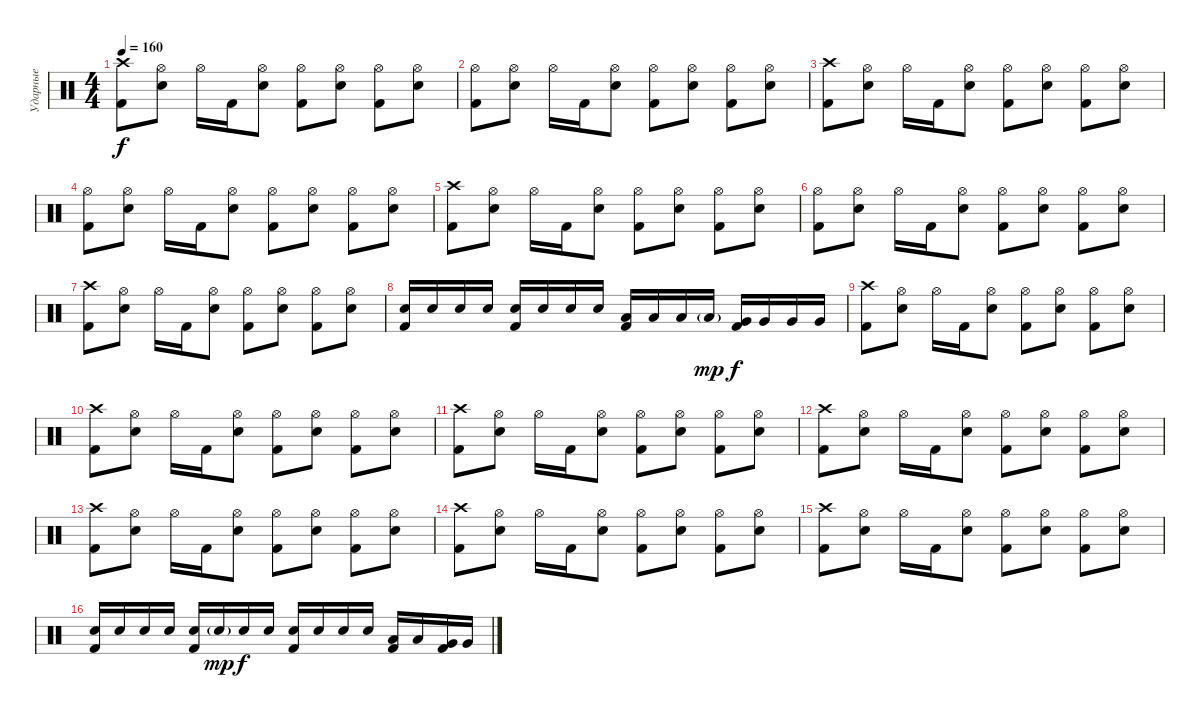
\track ("Ударные" "Ударные") {instrument percussion}
\staff {score}
\articulation defaults
\ts (4 4)
\tempo 160
\clef neutral
\ks c
("Kick (hit) 2" "Crash high (hit)").8{dy f} ("Electric Snare (hit)" "Hi-Hat (open)").8 "Hi-Hat (open)".16 "Kick (hit) 2".16 ("Electric Snare (hit)" "Hi-Hat (open)").8 ("Kick (hit) 2" "Hi-Hat (open)").8 ("Electric Snare (hit)" "Hi-Hat (open)").8 ("Kick (hit) 2" "Hi-Hat (open)").8 ("Electric Snare (hit)" "Hi-Hat (open)").8 |
("Kick (hit) 2" "Hi-Hat (open)").8 ("Electric Snare (hit)" "Hi-Hat (open)").8 "Hi-Hat (open)".16 "Kick (hit) 2".16 ("Electric Snare (hit)" "Hi-Hat (open)").8 ("Kick (hit) 2" "Hi-Hat (open)").8 ("Electric Snare (hit)" "Hi-Hat (open)").8 ("Kick (hit) 2" "Hi-Hat (open)").8 ("Electric Snare (hit)" "Hi-Hat (open)").8 |
("Kick (hit) 2" "Crash high (hit)").8 ("Electric Snare (hit)" "Hi-Hat (open)").8 "Hi-Hat (open)".16 "Kick (hit) 2".16 ("Electric Snare (hit)" "Hi-Hat (open)").8 ("Kick (hit) 2" "Hi-Hat (open)").8 ("Electric Snare (hit)" "Hi-Hat (open)").8 ("Kick (hit) 2" "Hi-Hat (open)").8 ("Electric Snare (hit)" "Hi-Hat (open)").8 |
("Kick (hit) 2" "Hi-Hat (open)").8 ("Electric Snare (hit)" "Hi-Hat (open)").8 "Hi-Hat (open)".16 "Kick (hit) 2".16 ("Electric Snare (hit)" "Hi-Hat (open)").8 ("Kick (hit) 2" "Hi-Hat (open)").8 ("Electric Snare (hit)" "Hi-Hat (open)").8 ("Kick (hit) 2" "Hi-Hat (open)").8 ("Electric Snare (hit)" "Hi-Hat (open)").8 |
("Kick (hit) 2" "Crash high (hit)").8 ("Electric Snare (hit)" "Hi-Hat (open)").8 "Hi-Hat (open)".16 "Kick (hit) 2".16 ("Electric Snare (hit)" "Hi-Hat (open)").8 ("Kick (hit) 2" "Hi-Hat (open)").8 ("Electric Snare (hit)" "Hi-Hat (open)").8 ("Kick (hit) 2" "Hi-Hat (open)").8 ("Electric Snare (hit)" "Hi-Hat (open)").8 |
("Kick (hit) 2" "Hi-Hat (open)").8 ("Electric Snare (hit)" "Hi-Hat (open)").8 "Hi-Hat (open)".16 "Kick (hit) 2".16 ("Electric Snare (hit)" "Hi-Hat (open)").8 ("Kick (hit) 2" "Hi-Hat (open)").8 ("Electric Snare (hit)" "Hi-Hat (open)").8 ("Kick (hit) 2" "Hi-Hat (open)").8 ("Electric Snare (hit)" "Hi-Hat (open)").8 |
("Kick (hit) 2" "Crash high (hit)").8 ("Electric Snare (hit)" "Hi-Hat (open)").8 "Hi-Hat (open)".16 "Kick (hit) 2".16 ("Electric Snare (hit)" "Hi-Hat (open)").8 ("Kick (hit) 2" "Hi-Hat (open)").8 ("Electric Snare (hit)" "Hi-Hat (open)").8 ("Kick (hit) 2" "Hi-Hat (open)").8 ("Electric Snare (hit)" "Hi-Hat (open)").8 |
("Electric Snare (hit)" "Kick (hit) 2").16 "Electric Snare (hit)".16 "Electric Snare (hit)".16 "Electric Snare (hit)".16 ("Electric Snare (hit)" "Kick (hit) 2").16 "Electric Snare (hit)".16 "Electric Snare (hit)".16 "Electric Snare (hit)".16 ("Low Tom (hit)" "Kick (hit) 2").16 "Low Tom (hit)".16 "Low Tom (hit)".16 "Low Tom (hit)"{g}.16{dy mp} ("Very Low Tom (hit)" "Kick (hit) 2").16{dy f} "Very Low Tom (hit)".16 "Very Low Tom (hit)".16 "Very Low Tom (hit)".16 |
("Kick (hit) 2" "Crash high (hit)").8 ("Electric Snare (hit)" "Hi-Hat (open)").8 "Hi-Hat (open)".16 "Kick (hit) 2".16 ("Electric Snare (hit)" "Hi-Hat (open)").8 ("Kick (hit) 2" "Hi-Hat (open)").8 ("Electric Snare (hit)" "Hi-Hat (open)").8 ("Kick (hit) 2" "Hi-Hat (open)").8 ("Electric Snare (hit)" "Hi-Hat (open)").8 |
("Kick (hit) 2" "Crash high (hit)").8 ("Electric Snare (hit)" "Hi-Hat (open)").8 "Hi-Hat (open)".16 "Kick (hit) 2".16 ("Electric Snare (hit)" "Hi-Hat (open)").8 ("Kick (hit) 2" "Hi-Hat (open)").8 ("Electric Snare (hit)" "Hi-Hat (open)").8 ("Kick (hit) 2" "Hi-Hat (open)").8 ("Electric Snare (hit)" "Hi-Hat (open)").8 |
("Kick (hit) 2" "Crash high (hit)").8 ("Electric Snare (hit)" "Hi-Hat (open)").8 "Hi-Hat (open)".16 "Kick (hit) 2".16 ("Electric Snare (hit)" "Hi-Hat (open)").8 ("Kick (hit) 2" "Hi-Hat (open)").8 ("Electric Snare (hit)" "Hi-Hat (open)").8 ("Kick (hit) 2" "Hi-Hat (open)").8 ("Electric Snare (hit)" "Hi-Hat (open)").8 |
("Kick (hit) 2" "Crash high (hit)").8 ("Electric Snare (hit)" "Hi-Hat (open)").8 "Hi-Hat (open)".16 "Kick (hit) 2".16 ("Electric Snare (hit)" "Hi-Hat (open)").8 ("Kick (hit) 2" "Hi-Hat (open)").8 ("Electric Snare (hit)" "Hi-Hat (open)").8 ("Kick (hit) 2" "Hi-Hat (open)").8 ("Electric Snare (hit)" "Hi-Hat (open)").8 |
("Kick (hit) 2" "Crash high (hit)").8 ("Electric Snare (hit)" "Hi-Hat (open)").8 "Hi-Hat (open)".16 "Kick (hit) 2".16 ("Electric Snare (hit)" "Hi-Hat (open)").8 ("Kick (hit) 2" "Hi-Hat (open)").8 ("Electric Snare (hit)" "Hi-Hat (open)").8 ("Kick (hit) 2" "Hi-Hat (open)").8 ("Electric Snare (hit)" "Hi-Hat (open)").8 |
("Kick (hit) 2" "Crash high (hit)").8 ("Electric Snare (hit)" "Hi-Hat (open)").8 "Hi-Hat (open)".16 "Kick (hit) 2".16 ("Electric Snare (hit)" "Hi-Hat (open)").8 ("Kick (hit) 2" "Hi-Hat (open)").8 ("Electric Snare (hit)" "Hi-Hat (open)").8 ("Kick (hit) 2" "Hi-Hat (open)").8 ("Electric Snare (hit)" "Hi-Hat (open)").8 |
("Kick (hit) 2" "Crash high (hit)").8 ("Electric Snare (hit)" "Hi-Hat (open)").8 "Hi-Hat (open)".16 "Kick (hit) 2".16 ("Electric Snare (hit)" "Hi-Hat (open)").8 ("Kick (hit) 2" "Hi-Hat (open)").8 ("Electric Snare (hit)" "Hi-Hat (open)").8 ("Kick (hit) 2" "Hi-Hat (open)").8 ("Electric Snare (hit)" "Hi-Hat (open)").8 |
("Electric Snare (hit)" "Kick (hit) 2").16 "Electric Snare (hit)".16 "Electric Snare (hit)".16 "Electric Snare (hit)".16 ("Electric Snare (hit)" "Kick (hit) 2").16 "Electric Snare (hit)"{g}.16{dy mp} "Electric Snare (hit)".16{dy f} "Electric Snare (hit)".16 ("Electric Snare (hit)" "Kick (hit) 2").16 "Electric Snare (hit)".16 "Electric Snare (hit)".16 "Electric Snare (hit)".16 ("Low Tom (hit)" "Kick (hit) 2").16 "Low Tom (hit)".16 ("Very Low Tom (hit)" "Kick (hit) 2").16 "Very Low Tom (hit)".16
